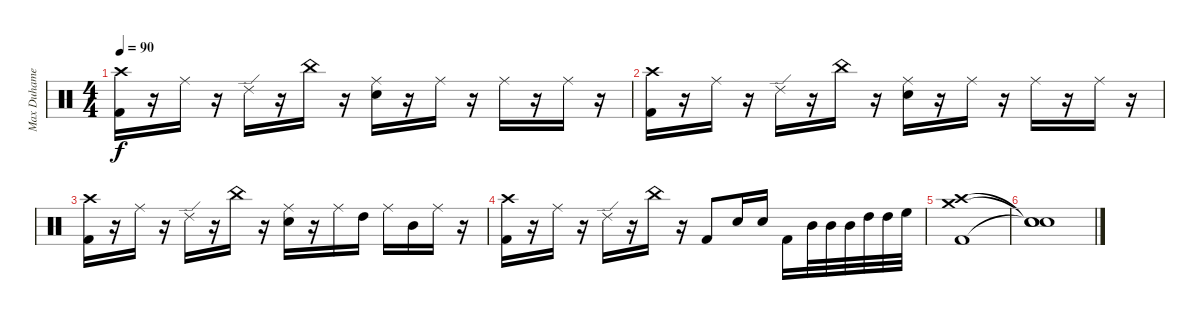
\track ("Max Duhamel (Drums)" "Max Duhame") {instrument percussion}
\staff {score}
\articulation defaults
\ts (4 4)
\tempo 90
\clef neutral
\ks c
("Crash high (hit)" "Kick (hit) 2").16{dy f} r.16 "Ride (middle)".16 r.16 "Ride (edge) 2".16 r.16 "China (hit)".16 r.16 ("Ride (middle)" "Snare (hit) 2").16 r.16 "Ride (middle)".16 r.16 "Ride (middle)".16 r.16 "Ride (middle)".16 r.16 |
("Crash high (hit)" "Kick (hit) 2").16 r.16 "Ride (middle)".16 r.16 "Ride (edge) 2".16 r.16 "China (hit)".16 r.16 ("Ride (middle)" "Snare (hit) 2").16 r.16 "Ride (middle)".16 r.16 "Ride (middle)".16 r.16 "Ride (middle)".16 r.16 |
("Crash high (hit)" "Kick (hit) 2").16 r.16 "Ride (middle)".16 r.16 "Ride (edge) 2".16 r.16 "China (hit)".16 r.16 ("Ride (middle)" "Snare (hit) 2").16 r.16 "Ride (middle)".16 "High Tom (hit)".16 "Ride (middle)".16 "Mid Tom (hit)".16 "Ride (middle)".16 r.16 |
("Crash high (hit)" "Kick (hit) 2").16 r.16 "Ride (middle)".16 r.16 "Ride (edge) 2".16 r.16 "China (hit)".16 r.16 "Kick (hit) 2".8 "Snare (hit) 2".16 "Snare (hit) 2".16 "Kick (hit) 2".16 "Mid Tom (hit)".32 "Mid Tom (hit)".32 "Mid Tom (hit)".32 "High Tom (hit)".32 "High Tom (hit)".32 "High Floor Tom (hit)".32 |
("Crash medium (hit)" "Crash high (hit)" "Kick (hit) 2").1 |
("Snare (hit)"{t} "Snare (hit)"{t} "Snare (hit)"{t}).1
